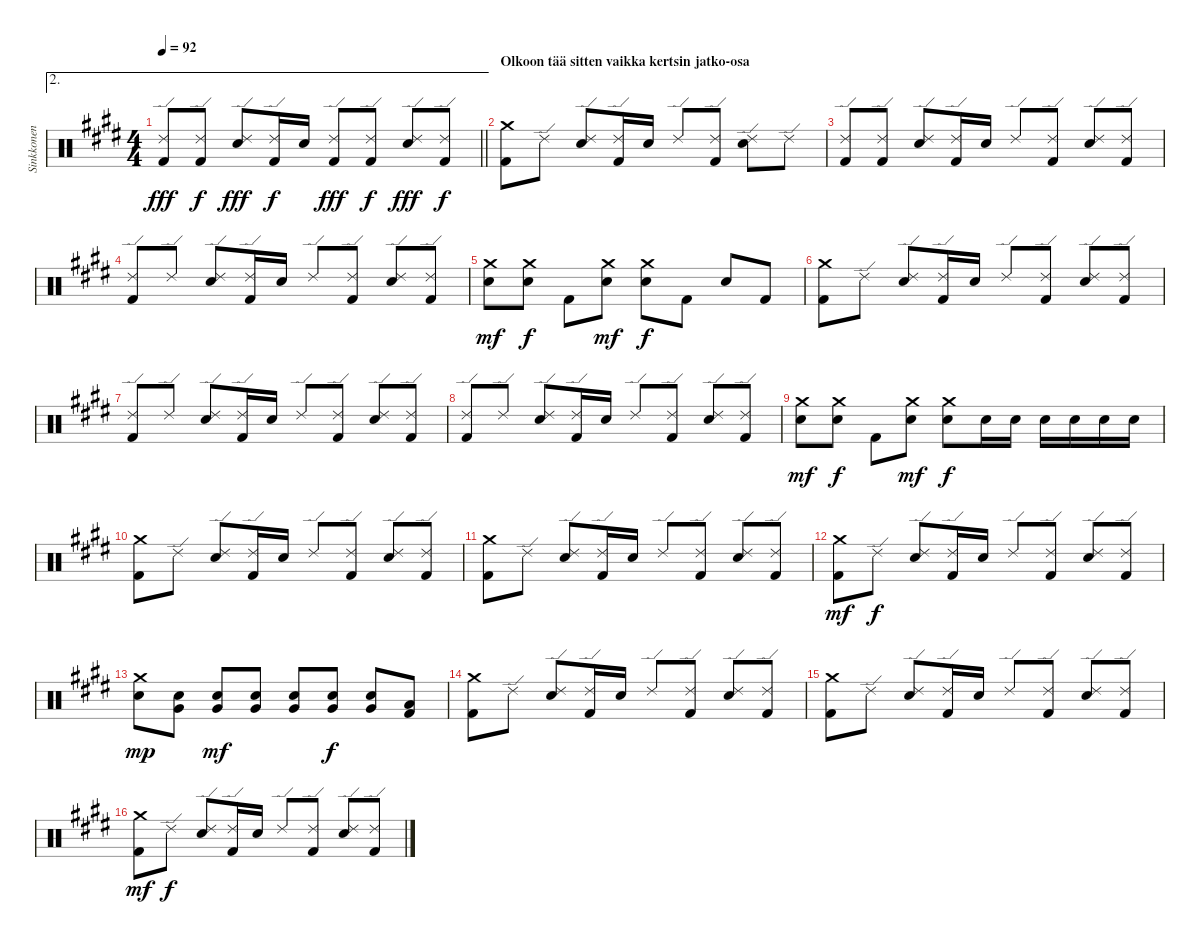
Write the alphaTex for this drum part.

\track ("Sinkkonen" "Sinkkonen") {instrument percussion}
\staff {score}
\articulation defaults
\ae 2
\ts (4 4)
\tempo 92
\clef neutral
\barLineRight lightlight
\ks c#minor
("Kick (hit) 2" "Ride (edge) 2").8{dy fff} ("Kick (hit) 2" "Ride (edge) 2").8{dy f} ("Ride (edge) 2" "Snare (hit) 2").8{dy fff} ("Kick (hit) 2" "Ride (edge) 2").16{dy f} "Snare (hit) 2".16 ("Kick (hit) 2" "Ride (edge) 2").8{dy fff} ("Kick (hit) 2" "Ride (edge) 2").8{dy f} ("Ride (edge) 2" "Snare (hit) 2").8{dy fff} ("Kick (hit) 2" "Ride (edge) 2").8{dy f} |
\section ("" "Olkoon tää sitten vaikka kertsin jatko-osa")
("Kick (hit) 2" "Crash medium (hit)").8 "Ride (edge) 2".8 ("Ride (edge) 2" "Snare (hit) 2").8 ("Kick (hit) 2" "Ride (edge) 2").16 "Snare (hit) 2".16 "Ride (edge) 2".8 ("Kick (hit) 2" "Ride (edge) 2").8 ("Ride (edge) 2" "Snare (hit) 2").8 "Ride (edge) 2".8 |
("Kick (hit) 2" "Ride (edge) 2").8 ("Kick (hit) 2" "Ride (edge) 2").8 ("Ride (edge) 2" "Snare (hit) 2").8 ("Kick (hit) 2" "Ride (edge) 2").16 "Snare (hit) 2".16 "Ride (edge) 2".8 ("Kick (hit) 2" "Ride (edge) 2").8 ("Ride (edge) 2" "Snare (hit) 2").8 ("Kick (hit) 2" "Ride (edge) 2").8 |
("Kick (hit) 2" "Ride (edge) 2").8 "Ride (edge) 2".8 ("Ride (edge) 2" "Snare (hit) 2").8 ("Kick (hit) 2" "Ride (edge) 2").16 "Snare (hit) 2".16 "Ride (edge) 2".8 ("Kick (hit) 2" "Ride (edge) 2").8 ("Ride (edge) 2" "Snare (hit) 2").8 ("Kick (hit) 2" "Ride (edge) 2").8 |
("Crash medium (hit)" "Snare (hit) 2").8{dy mf} ("Crash medium (hit)" "Snare (hit) 2").8{dy f} "Kick (hit) 2".8 ("Crash medium (hit)" "Snare (hit) 2").8{dy mf} ("Crash medium (hit)" "Snare (hit) 2").8{dy f} "Kick (hit) 2".8 "Snare (hit) 2".8 "Kick (hit) 2".8 |
("Kick (hit) 2" "Crash medium (hit)").8 "Ride (edge) 2".8 ("Ride (edge) 2" "Snare (hit) 2").8 ("Kick (hit) 2" "Ride (edge) 2").16 "Snare (hit) 2".16 "Ride (edge) 2".8 ("Kick (hit) 2" "Ride (edge) 2").8 ("Ride (edge) 2" "Snare (hit) 2").8 ("Kick (hit) 2" "Ride (edge) 2").8 |
("Kick (hit) 2" "Ride (edge) 2").8 "Ride (edge) 2".8 ("Ride (edge) 2" "Snare (hit) 2").8 ("Kick (hit) 2" "Ride (edge) 2").16 "Snare (hit) 2".16 "Ride (edge) 2".8 ("Kick (hit) 2" "Ride (edge) 2").8 ("Ride (edge) 2" "Snare (hit) 2").8 ("Kick (hit) 2" "Ride (edge) 2").8 |
("Kick (hit) 2" "Ride (edge) 2").8 "Ride (edge) 2".8 ("Ride (edge) 2" "Snare (hit) 2").8 ("Kick (hit) 2" "Ride (edge) 2").16 "Snare (hit) 2".16 "Ride (edge) 2".8 ("Kick (hit) 2" "Ride (edge) 2").8 ("Ride (edge) 2" "Snare (hit) 2").8 ("Kick (hit) 2" "Ride (edge) 2").8 |
("Crash medium (hit)" "Snare (hit) 2").8{dy mf} ("Crash medium (hit)" "Snare (hit) 2").8{dy f} "Kick (hit) 2".8 ("Crash medium (hit)" "Snare (hit) 2").8{dy mf} ("Crash medium (hit)" "Snare (hit) 2").8{dy f} "Snare (hit) 2".16 "Snare (hit) 2".16 "Snare (hit) 2".16 "Snare (hit) 2".16 "Snare (hit) 2".16 "Snare (hit) 2".16 |
("Kick (hit) 2" "Crash medium (hit)").8 "Ride (edge) 2".8 ("Ride (edge) 2" "Snare (hit) 2").8 ("Kick (hit) 2" "Ride (edge) 2").16 "Snare (hit) 2".16 "Ride (edge) 2".8 ("Kick (hit) 2" "Ride (edge) 2").8 ("Ride (edge) 2" "Snare (hit) 2").8 ("Kick (hit) 2" "Ride (edge) 2").8 |
("Kick (hit) 2" "Crash medium (hit)").8 "Ride (edge) 2".8 ("Ride (edge) 2" "Snare (hit) 2").8 ("Kick (hit) 2" "Ride (edge) 2").16 "Snare (hit) 2".16 "Ride (edge) 2".8 ("Kick (hit) 2" "Ride (edge) 2").8 ("Ride (edge) 2" "Snare (hit) 2").8 ("Kick (hit) 2" "Ride (edge) 2").8 |
("Kick (hit) 2" "Crash medium (hit)").8{dy mf} "Ride (edge) 2".8{dy f} ("Ride (edge) 2" "Snare (hit) 2").8 ("Kick (hit) 2" "Ride (edge) 2").16 "Snare (hit) 2".16 "Ride (edge) 2".8 ("Kick (hit) 2" "Ride (edge) 2").8 ("Ride (edge) 2" "Snare (hit) 2").8 ("Kick (hit) 2" "Ride (edge) 2").8 |
("Crash medium (hit)" "Snare (hit) 2").8{dy mp} ("Very Low Tom (hit)" "Snare (hit) 2").8 ("Very Low Tom (hit)" "Snare (hit) 2").8{dy mf} ("Very Low Tom (hit)" "Snare (hit) 2").8 ("Very Low Tom (hit)" "Snare (hit) 2").8 ("Very Low Tom (hit)" "Snare (hit) 2").8{dy f} ("Very Low Tom (hit)" "Snare (hit) 2").8 ("Kick (hit) 2" "Low Floor Tom (hit)").8 |
("Kick (hit) 2" "Crash medium (hit)").8 "Ride (edge) 2".8 ("Ride (edge) 2" "Snare (hit) 2").8 ("Kick (hit) 2" "Ride (edge) 2").16 "Snare (hit) 2".16 "Ride (edge) 2".8 ("Kick (hit) 2" "Ride (edge) 2").8 ("Ride (edge) 2" "Snare (hit) 2").8 ("Kick (hit) 2" "Ride (edge) 2").8 |
("Kick (hit) 2" "Crash medium (hit)").8 "Ride (edge) 2".8 ("Ride (edge) 2" "Snare (hit) 2").8 ("Kick (hit) 2" "Ride (edge) 2").16 "Snare (hit) 2".16 "Ride (edge) 2".8 ("Kick (hit) 2" "Ride (edge) 2").8 ("Ride (edge) 2" "Snare (hit) 2").8 ("Kick (hit) 2" "Ride (edge) 2").8 |
("Kick (hit) 2" "Crash medium (hit)").8{dy mf} "Ride (edge) 2".8{dy f} ("Ride (edge) 2" "Snare (hit) 2").8 ("Kick (hit) 2" "Ride (edge) 2").16 "Snare (hit) 2".16 "Ride (edge) 2".8 ("Kick (hit) 2" "Ride (edge) 2").8 ("Ride (edge) 2" "Snare (hit) 2").8 ("Kick (hit) 2" "Ride (edge) 2").8
